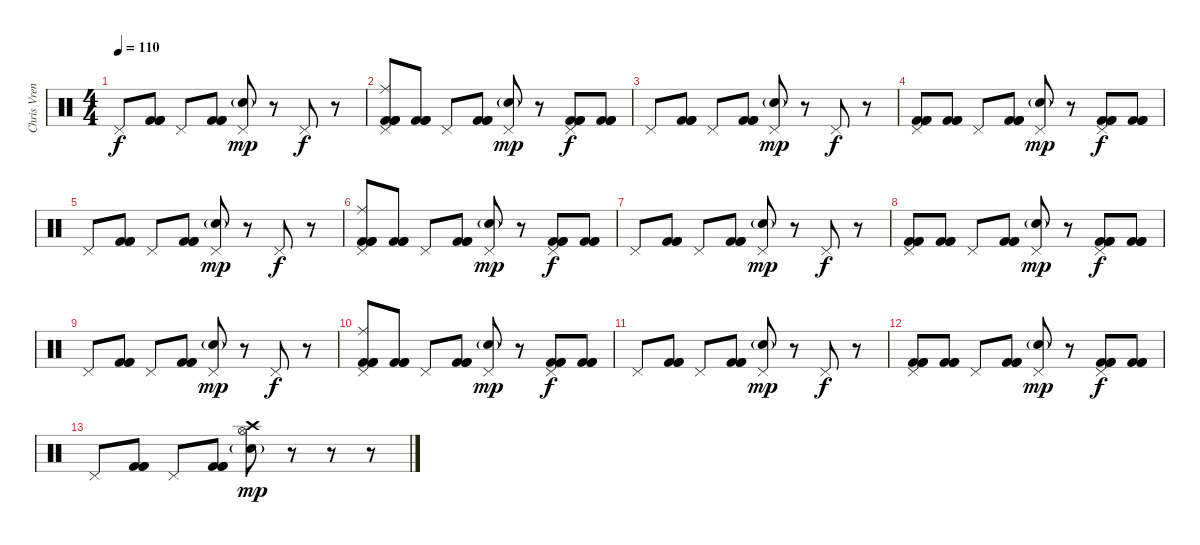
\track ("Chris Vrenna " "Chris Vren") {instrument percussion}
\staff {score}
\articulation defaults
\ts (4 4)
\tempo 110
\clef neutral
\ks c "Pedal Hi-Hat (hit)".8{dy f}
("Kick (hit) 2" "Kick (hit) 2" "Kick (hit) 2").8 "Pedal Hi-Hat (hit)".8 ("Kick (hit) 2" "Kick (hit) 2" "Kick (hit) 2").8 ("Pedal Hi-Hat (hit)" "Electric Snare (hit)"{g}).8{dy mp} r.8 "Pedal Hi-Hat (hit)".8{dy f} r.8 |
("Pedal Hi-Hat (hit)" "Ride (middle)" "Kick (hit) 2" "Kick (hit) 2" "Kick (hit) 2").8 ("Kick (hit) 2" "Kick (hit) 2" "Kick (hit) 2").8 "Pedal Hi-Hat (hit)".8 ("Kick (hit) 2" "Kick (hit) 2" "Kick (hit) 2").8 ("Pedal Hi-Hat (hit)" "Electric Snare (hit)"{g}).8{dy mp} r.8 ("Pedal Hi-Hat (hit)" "Kick (hit) 2" "Kick (hit) 2" "Kick (hit) 2").8{dy f} ("Kick (hit) 2" "Kick (hit) 2" "Kick (hit) 2").8 |
"Pedal Hi-Hat (hit)".8 ("Kick (hit) 2" "Kick (hit) 2" "Kick (hit) 2").8 "Pedal Hi-Hat (hit)".8 ("Kick (hit) 2" "Kick (hit) 2" "Kick (hit) 2").8 ("Pedal Hi-Hat (hit)" "Electric Snare (hit)"{g}).8{dy mp} r.8 "Pedal Hi-Hat (hit)".8{dy f} r.8 |
("Pedal Hi-Hat (hit)" "Kick (hit) 2" "Kick (hit) 2" "Kick (hit) 2").8 ("Kick (hit) 2" "Kick (hit) 2" "Kick (hit) 2").8 "Pedal Hi-Hat (hit)".8 ("Kick (hit) 2" "Kick (hit) 2" "Kick (hit) 2").8 ("Pedal Hi-Hat (hit)" "Electric Snare (hit)"{g}).8{dy mp} r.8 ("Pedal Hi-Hat (hit)" "Kick (hit) 2" "Kick (hit) 2" "Kick (hit) 2").8{dy f} ("Kick (hit) 2" "Kick (hit) 2" "Kick (hit) 2").8 |
"Pedal Hi-Hat (hit)".8 ("Kick (hit) 2" "Kick (hit) 2" "Kick (hit) 2").8 "Pedal Hi-Hat (hit)".8 ("Kick (hit) 2" "Kick (hit) 2" "Kick (hit) 2").8 ("Pedal Hi-Hat (hit)" "Electric Snare (hit)"{g}).8{dy mp} r.8 "Pedal Hi-Hat (hit)".8{dy f} r.8 |
("Pedal Hi-Hat (hit)" "Ride (middle)" "Kick (hit) 2" "Kick (hit) 2" "Kick (hit) 2").8 ("Kick (hit) 2" "Kick (hit) 2" "Kick (hit) 2").8 "Pedal Hi-Hat (hit)".8 ("Kick (hit) 2" "Kick (hit) 2" "Kick (hit) 2").8 ("Pedal Hi-Hat (hit)" "Electric Snare (hit)"{g}).8{dy mp} r.8 ("Pedal Hi-Hat (hit)" "Kick (hit) 2" "Kick (hit) 2" "Kick (hit) 2").8{dy f} ("Kick (hit) 2" "Kick (hit) 2" "Kick (hit) 2").8 |
"Pedal Hi-Hat (hit)".8 ("Kick (hit) 2" "Kick (hit) 2" "Kick (hit) 2").8 "Pedal Hi-Hat (hit)".8 ("Kick (hit) 2" "Kick (hit) 2" "Kick (hit) 2").8 ("Pedal Hi-Hat (hit)" "Electric Snare (hit)"{g}).8{dy mp} r.8 "Pedal Hi-Hat (hit)".8{dy f} r.8 |
("Pedal Hi-Hat (hit)" "Kick (hit) 2" "Kick (hit) 2" "Kick (hit) 2").8 ("Kick (hit) 2" "Kick (hit) 2" "Kick (hit) 2").8 "Pedal Hi-Hat (hit)".8 ("Kick (hit) 2" "Kick (hit) 2" "Kick (hit) 2").8 ("Pedal Hi-Hat (hit)" "Electric Snare (hit)"{g}).8{dy mp} r.8 ("Pedal Hi-Hat (hit)" "Kick (hit) 2" "Kick (hit) 2" "Kick (hit) 2").8{dy f} ("Kick (hit) 2" "Kick (hit) 2" "Kick (hit) 2").8 |
"Pedal Hi-Hat (hit)".8 ("Kick (hit) 2" "Kick (hit) 2" "Kick (hit) 2").8 "Pedal Hi-Hat (hit)".8 ("Kick (hit) 2" "Kick (hit) 2" "Kick (hit) 2").8 ("Pedal Hi-Hat (hit)" "Electric Snare (hit)"{g}).8{dy mp} r.8 "Pedal Hi-Hat (hit)".8{dy f} r.8 |
("Pedal Hi-Hat (hit)" "Ride (middle)" "Kick (hit) 2" "Kick (hit) 2" "Kick (hit) 2").8 ("Kick (hit) 2" "Kick (hit) 2" "Kick (hit) 2").8 "Pedal Hi-Hat (hit)".8 ("Kick (hit) 2" "Kick (hit) 2" "Kick (hit) 2").8 ("Pedal Hi-Hat (hit)" "Electric Snare (hit)"{g}).8{dy mp} r.8 ("Pedal Hi-Hat (hit)" "Kick (hit) 2" "Kick (hit) 2" "Kick (hit) 2").8{dy f} ("Kick (hit) 2" "Kick (hit) 2" "Kick (hit) 2").8 |
"Pedal Hi-Hat (hit)".8 ("Kick (hit) 2" "Kick (hit) 2" "Kick (hit) 2").8 "Pedal Hi-Hat (hit)".8 ("Kick (hit) 2" "Kick (hit) 2" "Kick (hit) 2").8 ("Pedal Hi-Hat (hit)" "Electric Snare (hit)"{g}).8{dy mp} r.8 "Pedal Hi-Hat (hit)".8{dy f} r.8 |
("Pedal Hi-Hat (hit)" "Kick (hit) 2" "Kick (hit) 2" "Kick (hit) 2").8 ("Kick (hit) 2" "Kick (hit) 2" "Kick (hit) 2").8 "Pedal Hi-Hat (hit)".8 ("Kick (hit) 2" "Kick (hit) 2" "Kick (hit) 2").8 ("Pedal Hi-Hat (hit)" "Electric Snare (hit)"{g}).8{dy mp} r.8 ("Pedal Hi-Hat (hit)" "Kick (hit) 2" "Kick (hit) 2" "Kick (hit) 2").8{dy f} ("Kick (hit) 2" "Kick (hit) 2" "Kick (hit) 2").8 |
"Pedal Hi-Hat (hit)".8 ("Kick (hit) 2" "Kick (hit) 2" "Kick (hit) 2").8 "Pedal Hi-Hat (hit)".8 ("Kick (hit) 2" "Kick (hit) 2" "Kick (hit) 2").8 ("Hi-Hat (open)" "Crash high (hit)" "Electric Snare (hit)"{g}).8{dy mp} r.8 r.8 r.8
